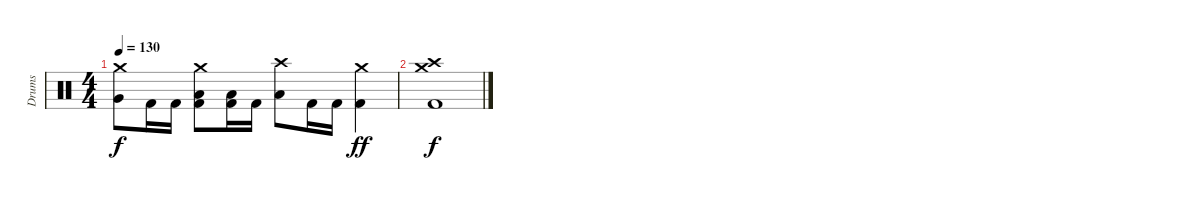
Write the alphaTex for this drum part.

\track ("Drums" "Drums") {instrument percussion}
\staff {score}
\articulation defaults
\ts (4 4)
\tempo 130
\clef neutral
\ks c
("Crash medium (hit)" "Very Low Tom (hit)").8{dy f} "Kick (hit) 2".16 "Kick (hit) 2".16 ("Crash medium (hit)" "Low Floor Tom (hit)" "Kick (hit) 2").8 ("Low Floor Tom (hit)" "Kick (hit) 2").16 "Kick (hit) 2".16 ("Crash high (hit)" "Low Floor Tom (hit)").8 "Kick (hit) 2".16 "Kick (hit) 2".16 ("Crash medium (hit)" "Kick (hit) 2").4{dy ff} |
("Crash high (hit)" "Crash medium (hit)" "Kick (hit) 2").1{dy f}
